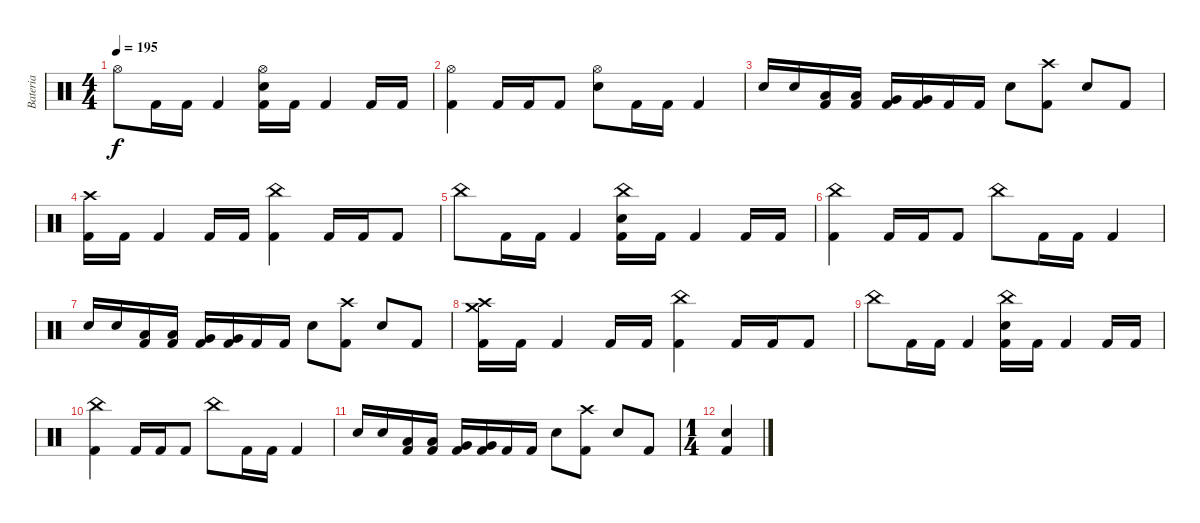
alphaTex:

\track ("Bateria" "Bateria") {instrument percussion}
\staff {score}
\articulation defaults
\ts (4 4)
\tempo 195
\clef neutral
\ks c "Hi-Hat (open)".8{dy f} "Kick (hit) 2".16 "Kick (hit) 2".16 "Kick (hit) 2".4
("Snare (hit) 2" "Hi-Hat (open)" "Kick (hit) 2").16 "Kick (hit) 2".16 "Kick (hit) 2".4 "Kick (hit) 2".16 "Kick (hit) 2".16 |
("Hi-Hat (open)" "Kick (hit) 2").4 "Kick (hit) 2".16 "Kick (hit) 2".16 "Kick (hit) 2".8 ("Snare (hit) 2" "Hi-Hat (open)").8 "Kick (hit) 2".16 "Kick (hit) 2".16 "Kick (hit) 2".4 |
"Snare (hit) 2".16 "Snare (hit) 2".16 ("Low Tom (hit)" "Kick (hit) 2").16 ("Low Tom (hit)" "Kick (hit) 2").16 ("Very Low Tom (hit)" "Kick (hit) 2").16 ("Very Low Tom (hit)" "Kick (hit) 2").16 "Kick (hit) 2".16 "Kick (hit) 2".16 "Snare (hit) 2".8 ("Crash high (hit)" "Kick (hit) 2").8 "Snare (hit) 2".8 "Kick (hit) 2".8 |
("Crash high (hit)" "Kick (hit) 2").16 "Kick (hit) 2".16 "Kick (hit) 2".4 "Kick (hit) 2".16 "Kick (hit) 2".16 ("China (hit)" "Kick (hit) 2").4 "Kick (hit) 2".16 "Kick (hit) 2".16 "Kick (hit) 2".8 |
"China (hit)".8 "Kick (hit) 2".16 "Kick (hit) 2".16 "Kick (hit) 2".4 ("Snare (hit) 2" "China (hit)" "Kick (hit) 2").16 "Kick (hit) 2".16 "Kick (hit) 2".4 "Kick (hit) 2".16 "Kick (hit) 2".16 |
("China (hit)" "Kick (hit) 2").4 "Kick (hit) 2".16 "Kick (hit) 2".16 "Kick (hit) 2".8 "China (hit)".8 "Kick (hit) 2".16 "Kick (hit) 2".16 "Kick (hit) 2".4 |
"Snare (hit) 2".16 "Snare (hit) 2".16 ("Low Tom (hit)" "Kick (hit) 2").16 ("Low Tom (hit)" "Kick (hit) 2").16 ("Very Low Tom (hit)" "Kick (hit) 2").16 ("Very Low Tom (hit)" "Kick (hit) 2").16 "Kick (hit) 2".16 "Kick (hit) 2".16 "Snare (hit) 2".8 ("Crash high (hit)" "Kick (hit) 2").8 "Snare (hit) 2".8 "Kick (hit) 2".8 |
("Crash medium (hit)" "Crash high (hit)" "Kick (hit) 2").16 "Kick (hit) 2".16 "Kick (hit) 2".4 "Kick (hit) 2".16 "Kick (hit) 2".16 ("China (hit)" "Kick (hit) 2").4 "Kick (hit) 2".16 "Kick (hit) 2".16 "Kick (hit) 2".8 |
"China (hit)".8 "Kick (hit) 2".16 "Kick (hit) 2".16 "Kick (hit) 2".4 ("Snare (hit) 2" "China (hit)" "Kick (hit) 2").16 "Kick (hit) 2".16 "Kick (hit) 2".4 "Kick (hit) 2".16 "Kick (hit) 2".16 |
("China (hit)" "Kick (hit) 2").4 "Kick (hit) 2".16 "Kick (hit) 2".16 "Kick (hit) 2".8 "China (hit)".8 "Kick (hit) 2".16 "Kick (hit) 2".16 "Kick (hit) 2".4 |
"Snare (hit) 2".16 "Snare (hit) 2".16 ("Low Tom (hit)" "Kick (hit) 2").16 ("Low Tom (hit)" "Kick (hit) 2").16 ("Very Low Tom (hit)" "Kick (hit) 2").16 ("Very Low Tom (hit)" "Kick (hit) 2").16 "Kick (hit) 2".16 "Kick (hit) 2".16 "Snare (hit) 2".8 ("Crash high (hit)" "Kick (hit) 2").8 "Snare (hit) 2".8 "Kick (hit) 2".8 |
\ts (1 4)
("Snare (hit) 2" "Kick (hit) 2").4
